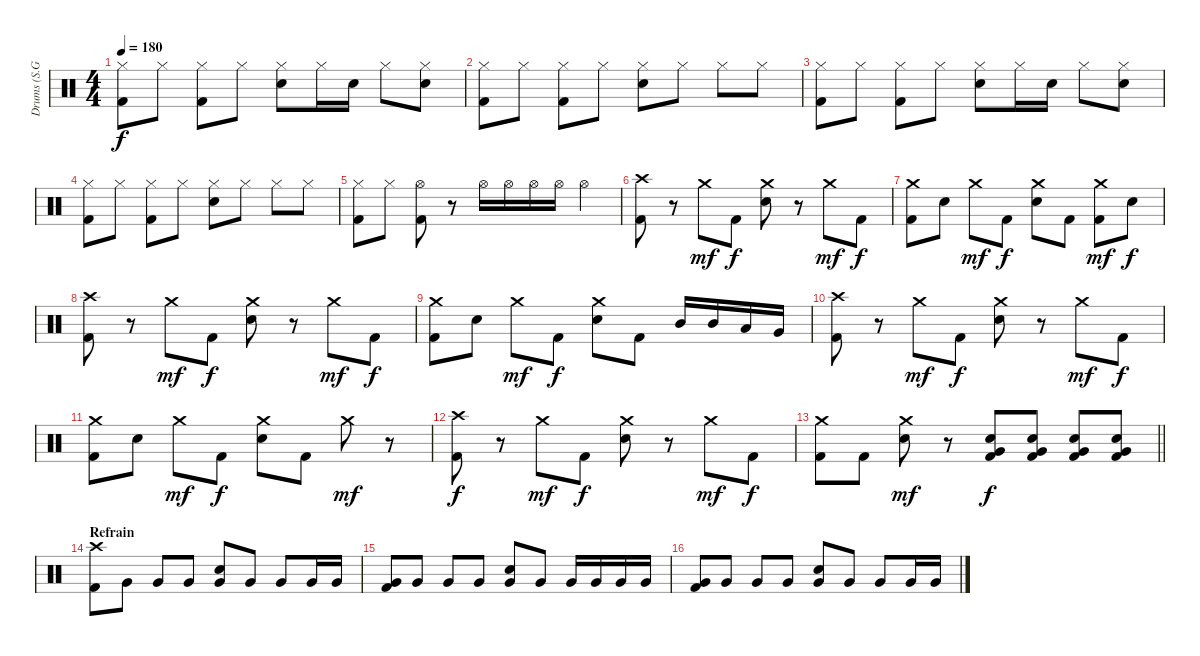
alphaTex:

\track ("Drums (S.G. Yim)" "Drums (S.G") {instrument percussion}
\staff {score}
\articulation defaults
\ts (4 4)
\tempo 180
\clef neutral
\ks c
("Hi-Hat (closed)" "Kick (hit) 2").8{dy f} "Hi-Hat (closed)".8 ("Hi-Hat (closed)" "Kick (hit) 2").8 "Hi-Hat (closed)".8 ("Hi-Hat (closed)" "Snare (hit) 2").8 "Hi-Hat (closed)".16 "Snare (hit) 2".16 "Hi-Hat (closed)".8 ("Hi-Hat (closed)" "Snare (hit) 2").8 |
("Hi-Hat (closed)" "Kick (hit) 2").8 "Hi-Hat (closed)".8 ("Hi-Hat (closed)" "Kick (hit) 2").8 "Hi-Hat (closed)".8 ("Hi-Hat (closed)" "Snare (hit) 2").8 "Hi-Hat (closed)".8 "Hi-Hat (closed)".8 "Hi-Hat (closed)".8 |
("Hi-Hat (closed)" "Kick (hit) 2").8 "Hi-Hat (closed)".8 ("Hi-Hat (closed)" "Kick (hit) 2").8 "Hi-Hat (closed)".8 ("Hi-Hat (closed)" "Snare (hit) 2").8 "Hi-Hat (closed)".16 "Snare (hit) 2".16 "Hi-Hat (closed)".8 ("Hi-Hat (closed)" "Snare (hit) 2").8 |
("Hi-Hat (closed)" "Kick (hit) 2").8 "Hi-Hat (closed)".8 ("Hi-Hat (closed)" "Kick (hit) 2").8 "Hi-Hat (closed)".8 ("Hi-Hat (closed)" "Snare (hit) 2").8 "Hi-Hat (closed)".8 "Hi-Hat (closed)".8 "Hi-Hat (closed)".8 |
("Hi-Hat (closed)" "Kick (hit) 2").8 "Hi-Hat (closed)".8 ("Hi-Hat (open)" "Kick (hit) 2").8 r.8 "Hi-Hat (open)".16 "Hi-Hat (open)".16 "Hi-Hat (open)".16 "Hi-Hat (open)".16 "Hi-Hat (open)".4 |
("Crash high (hit)" "Kick (hit) 2").8 r.8 "Crash medium (hit)".8{dy mf} "Kick (hit) 2".8{dy f} ("Crash medium (hit)" "Snare (hit) 2").8 r.8 "Crash medium (hit)".8{dy mf} "Kick (hit) 2".8{dy f} |
("Crash medium (hit)" "Kick (hit) 2").8 "Snare (hit) 2".8 "Crash medium (hit)".8{dy mf} "Kick (hit) 2".8{dy f} ("Crash medium (hit)" "Snare (hit) 2").8 "Kick (hit) 2".8 ("Crash medium (hit)" "Kick (hit) 2").8{dy mf} "Snare (hit) 2".8{dy f} |
("Crash high (hit)" "Kick (hit) 2").8 r.8 "Crash medium (hit)".8{dy mf} "Kick (hit) 2".8{dy f} ("Crash medium (hit)" "Snare (hit) 2").8 r.8 "Crash medium (hit)".8{dy mf} "Kick (hit) 2".8{dy f} |
("Crash medium (hit)" "Kick (hit) 2").8 "Snare (hit) 2".8 "Crash medium (hit)".8{dy mf} "Kick (hit) 2".8{dy f} ("Crash medium (hit)" "Snare (hit) 2").8 "Kick (hit) 2".8 "Mid Tom (hit)".16 "Mid Tom (hit)".16 "Low Tom (hit)".16 "Very Low Tom (hit)".16 |
("Crash high (hit)" "Kick (hit) 2").8 r.8 "Crash medium (hit)".8{dy mf} "Kick (hit) 2".8{dy f} ("Crash medium (hit)" "Snare (hit) 2").8 r.8 "Crash medium (hit)".8{dy mf} "Kick (hit) 2".8{dy f} |
("Crash medium (hit)" "Kick (hit) 2").8 "Snare (hit) 2".8 "Crash medium (hit)".8{dy mf} "Kick (hit) 2".8{dy f} ("Crash medium (hit)" "Snare (hit) 2").8 "Kick (hit) 2".8 "Crash medium (hit)".8{dy mf} r.8 |
("Crash high (hit)" "Kick (hit) 2").8{dy f} r.8 "Crash medium (hit)".8{dy mf} "Kick (hit) 2".8{dy f} ("Crash medium (hit)" "Snare (hit) 2").8 r.8 "Crash medium (hit)".8{dy mf} "Kick (hit) 2".8{dy f} |
\barLineRight lightlight
("Crash medium (hit)" "Kick (hit) 2").8 "Kick (hit) 2".8 ("Crash medium (hit)" "Snare (hit) 2").8{dy mf} r.8 ("Very Low Tom (hit)" "Snare (hit) 2" "Kick (hit) 2").8{dy f} ("Very Low Tom (hit)" "Snare (hit) 2" "Kick (hit) 2").8 ("Very Low Tom (hit)" "Snare (hit) 2" "Kick (hit) 2").8 ("Very Low Tom (hit)" "Snare (hit) 2" "Kick (hit) 2").8 |
\section ("" "Refrain")
("Crash high (hit)" "Kick (hit) 2").8 "Very Low Tom (hit)".8 "Very Low Tom (hit)".8 "Very Low Tom (hit)".8 ("Snare (hit) 2" "Very Low Tom (hit)").8 "Very Low Tom (hit)".8 "Very Low Tom (hit)".8 "Very Low Tom (hit)".16 "Very Low Tom (hit)".16 |
("Very Low Tom (hit)" "Kick (hit) 2").8 "Very Low Tom (hit)".8 "Very Low Tom (hit)".8 "Very Low Tom (hit)".8 ("Snare (hit) 2" "Very Low Tom (hit)").8 "Very Low Tom (hit)".8 "Very Low Tom (hit)".16 "Very Low Tom (hit)".16 "Very Low Tom (hit)".16 "Very Low Tom (hit)".16 |
("Very Low Tom (hit)" "Kick (hit) 2").8 "Very Low Tom (hit)".8 "Very Low Tom (hit)".8 "Very Low Tom (hit)".8 ("Snare (hit) 2" "Very Low Tom (hit)").8 "Very Low Tom (hit)".8 "Very Low Tom (hit)".8 "Very Low Tom (hit)".16 "Very Low Tom (hit)".16
